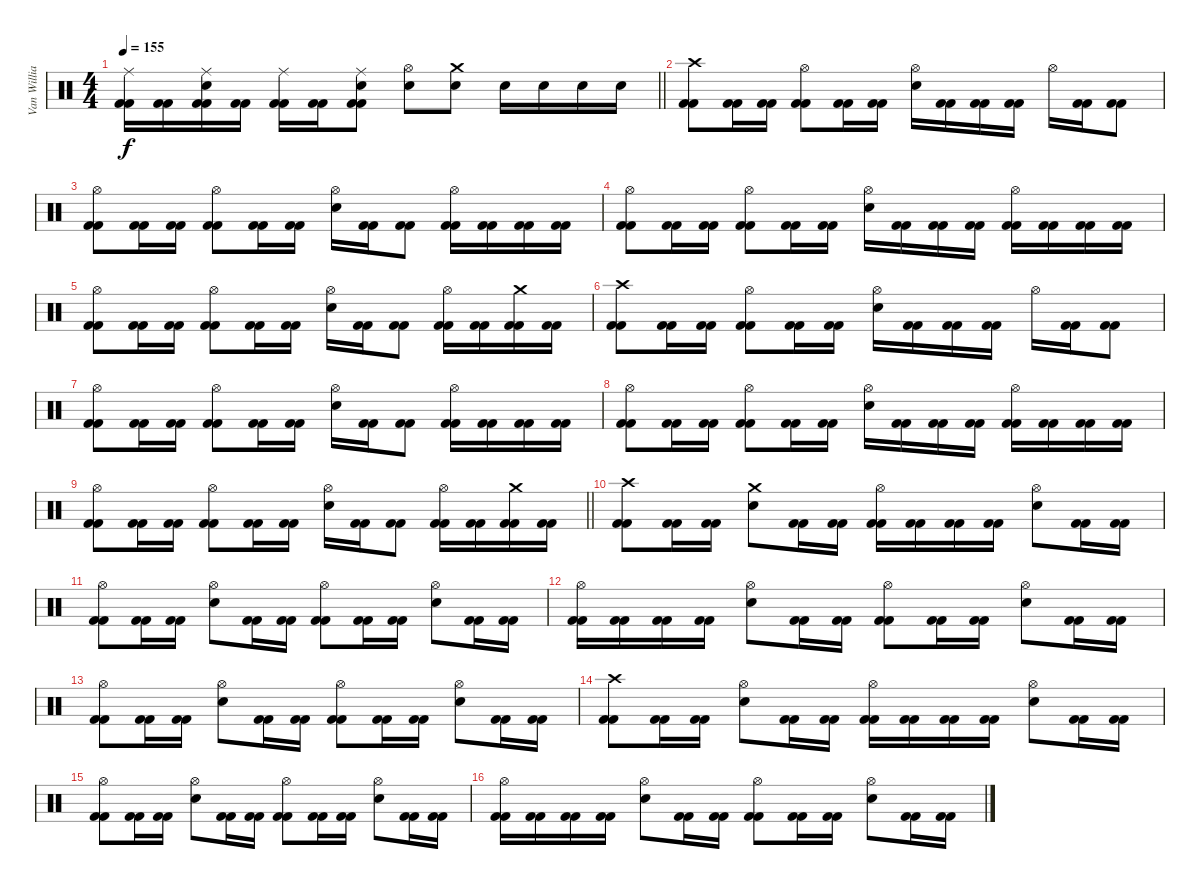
\track ("Van Williams" "Van Willia") {instrument percussion}
\staff {score}
\articulation defaults
\ts (4 4)
\tempo 155
\clef neutral
\barLineRight lightlight
\ks c
("Ride (middle)" "Kick (hit) 2" "Kick (hit) 2").16{dy f} ("Kick (hit) 2" "Kick (hit) 2").16 ("Ride (middle)" "Electric Snare (hit)" "Kick (hit) 2" "Kick (hit) 2").16 ("Kick (hit) 2" "Kick (hit) 2").16 ("Ride (middle)" "Kick (hit) 2" "Kick (hit) 2").16 ("Kick (hit) 2" "Kick (hit) 2").16 ("Ride (middle)" "Electric Snare (hit)" "Kick (hit) 2" "Kick (hit) 2").8 ("Hi-Hat (open)" "Electric Snare (hit)").8 ("Crash medium (hit)" "Electric Snare (hit)").8 "Electric Snare (hit)".16 "Electric Snare (hit)".16 "Electric Snare (hit)".16 "Electric Snare (hit)".16 |
("Crash high (hit)" "Kick (hit) 2" "Kick (hit) 2").8 ("Kick (hit) 2" "Kick (hit) 2").16 ("Kick (hit) 2" "Kick (hit) 2").16 ("Hi-Hat (open)" "Kick (hit) 2" "Kick (hit) 2").8 ("Kick (hit) 2" "Kick (hit) 2").16 ("Kick (hit) 2" "Kick (hit) 2").16 ("Hi-Hat (open)" "Electric Snare (hit)").16 ("Kick (hit) 2" "Kick (hit) 2").16 ("Kick (hit) 2" "Kick (hit) 2").16 ("Kick (hit) 2" "Kick (hit) 2").16 "Hi-Hat (open)".16 ("Kick (hit) 2" "Kick (hit) 2").16 ("Kick (hit) 2" "Kick (hit) 2").8 |
("Hi-Hat (open)" "Kick (hit) 2" "Kick (hit) 2").8 ("Kick (hit) 2" "Kick (hit) 2").16 ("Kick (hit) 2" "Kick (hit) 2").16 ("Hi-Hat (open)" "Kick (hit) 2" "Kick (hit) 2").8 ("Kick (hit) 2" "Kick (hit) 2").16 ("Kick (hit) 2" "Kick (hit) 2").16 ("Hi-Hat (open)" "Electric Snare (hit)").16 ("Kick (hit) 2" "Kick (hit) 2").16 ("Kick (hit) 2" "Kick (hit) 2").8 ("Hi-Hat (open)" "Kick (hit) 2" "Kick (hit) 2").16 ("Kick (hit) 2" "Kick (hit) 2").16 ("Kick (hit) 2" "Kick (hit) 2").16 ("Kick (hit) 2" "Kick (hit) 2").16 |
("Hi-Hat (open)" "Kick (hit) 2" "Kick (hit) 2").8 ("Kick (hit) 2" "Kick (hit) 2").16 ("Kick (hit) 2" "Kick (hit) 2").16 ("Hi-Hat (open)" "Kick (hit) 2" "Kick (hit) 2").8 ("Kick (hit) 2" "Kick (hit) 2").16 ("Kick (hit) 2" "Kick (hit) 2").16 ("Hi-Hat (open)" "Electric Snare (hit)").16 ("Kick (hit) 2" "Kick (hit) 2").16 ("Kick (hit) 2" "Kick (hit) 2").16 ("Kick (hit) 2" "Kick (hit) 2").16 ("Hi-Hat (open)" "Kick (hit) 2" "Kick (hit) 2").16 ("Kick (hit) 2" "Kick (hit) 2").16 ("Kick (hit) 2" "Kick (hit) 2").16 ("Kick (hit) 2" "Kick (hit) 2").16 |
("Hi-Hat (open)" "Kick (hit) 2" "Kick (hit) 2").8 ("Kick (hit) 2" "Kick (hit) 2").16 ("Kick (hit) 2" "Kick (hit) 2").16 ("Hi-Hat (open)" "Kick (hit) 2" "Kick (hit) 2").8 ("Kick (hit) 2" "Kick (hit) 2").16 ("Kick (hit) 2" "Kick (hit) 2").16 ("Hi-Hat (open)" "Electric Snare (hit)").16 ("Kick (hit) 2" "Kick (hit) 2").16 ("Kick (hit) 2" "Kick (hit) 2").8 ("Hi-Hat (open)" "Kick (hit) 2" "Kick (hit) 2").16 ("Kick (hit) 2" "Kick (hit) 2").16 ("Crash medium (hit)" "Kick (hit) 2" "Kick (hit) 2").16 ("Kick (hit) 2" "Kick (hit) 2").16 |
("Crash high (hit)" "Kick (hit) 2" "Kick (hit) 2").8 ("Kick (hit) 2" "Kick (hit) 2").16 ("Kick (hit) 2" "Kick (hit) 2").16 ("Hi-Hat (open)" "Kick (hit) 2" "Kick (hit) 2").8 ("Kick (hit) 2" "Kick (hit) 2").16 ("Kick (hit) 2" "Kick (hit) 2").16 ("Hi-Hat (open)" "Electric Snare (hit)").16 ("Kick (hit) 2" "Kick (hit) 2").16 ("Kick (hit) 2" "Kick (hit) 2").16 ("Kick (hit) 2" "Kick (hit) 2").16 "Hi-Hat (open)".16 ("Kick (hit) 2" "Kick (hit) 2").16 ("Kick (hit) 2" "Kick (hit) 2").8 |
("Hi-Hat (open)" "Kick (hit) 2" "Kick (hit) 2").8 ("Kick (hit) 2" "Kick (hit) 2").16 ("Kick (hit) 2" "Kick (hit) 2").16 ("Hi-Hat (open)" "Kick (hit) 2" "Kick (hit) 2").8 ("Kick (hit) 2" "Kick (hit) 2").16 ("Kick (hit) 2" "Kick (hit) 2").16 ("Hi-Hat (open)" "Electric Snare (hit)").16 ("Kick (hit) 2" "Kick (hit) 2").16 ("Kick (hit) 2" "Kick (hit) 2").8 ("Hi-Hat (open)" "Kick (hit) 2" "Kick (hit) 2").16 ("Kick (hit) 2" "Kick (hit) 2").16 ("Kick (hit) 2" "Kick (hit) 2").16 ("Kick (hit) 2" "Kick (hit) 2").16 |
("Hi-Hat (open)" "Kick (hit) 2" "Kick (hit) 2").8 ("Kick (hit) 2" "Kick (hit) 2").16 ("Kick (hit) 2" "Kick (hit) 2").16 ("Hi-Hat (open)" "Kick (hit) 2" "Kick (hit) 2").8 ("Kick (hit) 2" "Kick (hit) 2").16 ("Kick (hit) 2" "Kick (hit) 2").16 ("Hi-Hat (open)" "Electric Snare (hit)").16 ("Kick (hit) 2" "Kick (hit) 2").16 ("Kick (hit) 2" "Kick (hit) 2").16 ("Kick (hit) 2" "Kick (hit) 2").16 ("Hi-Hat (open)" "Kick (hit) 2" "Kick (hit) 2").16 ("Kick (hit) 2" "Kick (hit) 2").16 ("Kick (hit) 2" "Kick (hit) 2").16 ("Kick (hit) 2" "Kick (hit) 2").16 |
\barLineRight lightlight
("Hi-Hat (open)" "Kick (hit) 2" "Kick (hit) 2").8 ("Kick (hit) 2" "Kick (hit) 2").16 ("Kick (hit) 2" "Kick (hit) 2").16 ("Hi-Hat (open)" "Kick (hit) 2" "Kick (hit) 2").8 ("Kick (hit) 2" "Kick (hit) 2").16 ("Kick (hit) 2" "Kick (hit) 2").16 ("Hi-Hat (open)" "Electric Snare (hit)").16 ("Kick (hit) 2" "Kick (hit) 2").16 ("Kick (hit) 2" "Kick (hit) 2").8 ("Hi-Hat (open)" "Kick (hit) 2" "Kick (hit) 2").16 ("Kick (hit) 2" "Kick (hit) 2").16 ("Crash medium (hit)" "Kick (hit) 2" "Kick (hit) 2").16 ("Kick (hit) 2" "Kick (hit) 2").16 |
("Crash high (hit)" "Kick (hit) 2" "Kick (hit) 2").8 ("Kick (hit) 2" "Kick (hit) 2").16 ("Kick (hit) 2" "Kick (hit) 2").16 ("Crash medium (hit)" "Electric Snare (hit)").8 ("Kick (hit) 2" "Kick (hit) 2").16 ("Kick (hit) 2" "Kick (hit) 2").16 ("Hi-Hat (open)" "Kick (hit) 2" "Kick (hit) 2").16 ("Kick (hit) 2" "Kick (hit) 2").16 ("Kick (hit) 2" "Kick (hit) 2").16 ("Kick (hit) 2" "Kick (hit) 2").16 ("Hi-Hat (open)" "Electric Snare (hit)").8 ("Kick (hit) 2" "Kick (hit) 2").16 ("Kick (hit) 2" "Kick (hit) 2").16 |
("Hi-Hat (open)" "Kick (hit) 2" "Kick (hit) 2").8 ("Kick (hit) 2" "Kick (hit) 2").16 ("Kick (hit) 2" "Kick (hit) 2").16 ("Hi-Hat (open)" "Electric Snare (hit)").8 ("Kick (hit) 2" "Kick (hit) 2").16 ("Kick (hit) 2" "Kick (hit) 2").16 ("Hi-Hat (open)" "Kick (hit) 2" "Kick (hit) 2").8 ("Kick (hit) 2" "Kick (hit) 2").16 ("Kick (hit) 2" "Kick (hit) 2").16 ("Hi-Hat (open)" "Electric Snare (hit)").8 ("Kick (hit) 2" "Kick (hit) 2").16 ("Kick (hit) 2" "Kick (hit) 2").16 |
("Hi-Hat (open)" "Kick (hit) 2" "Kick (hit) 2").16 ("Kick (hit) 2" "Kick (hit) 2").16 ("Kick (hit) 2" "Kick (hit) 2").16 ("Kick (hit) 2" "Kick (hit) 2").16 ("Hi-Hat (open)" "Electric Snare (hit)").8 ("Kick (hit) 2" "Kick (hit) 2").16 ("Kick (hit) 2" "Kick (hit) 2").16 ("Hi-Hat (open)" "Kick (hit) 2" "Kick (hit) 2").8 ("Kick (hit) 2" "Kick (hit) 2").16 ("Kick (hit) 2" "Kick (hit) 2").16 ("Hi-Hat (open)" "Electric Snare (hit)").8 ("Kick (hit) 2" "Kick (hit) 2").16 ("Kick (hit) 2" "Kick (hit) 2").16 |
("Hi-Hat (open)" "Kick (hit) 2" "Kick (hit) 2").8 ("Kick (hit) 2" "Kick (hit) 2").16 ("Kick (hit) 2" "Kick (hit) 2").16 ("Hi-Hat (open)" "Electric Snare (hit)").8 ("Kick (hit) 2" "Kick (hit) 2").16 ("Kick (hit) 2" "Kick (hit) 2").16 ("Hi-Hat (open)" "Kick (hit) 2" "Kick (hit) 2").8 ("Kick (hit) 2" "Kick (hit) 2").16 ("Kick (hit) 2" "Kick (hit) 2").16 ("Hi-Hat (open)" "Electric Snare (hit)").8 ("Kick (hit) 2" "Kick (hit) 2").16 ("Kick (hit) 2" "Kick (hit) 2").16 |
("Crash high (hit)" "Kick (hit) 2" "Kick (hit) 2").8 ("Kick (hit) 2" "Kick (hit) 2").16 ("Kick (hit) 2" "Kick (hit) 2").16 ("Hi-Hat (open)" "Electric Snare (hit)").8 ("Kick (hit) 2" "Kick (hit) 2").16 ("Kick (hit) 2" "Kick (hit) 2").16 ("Hi-Hat (open)" "Kick (hit) 2" "Kick (hit) 2").16 ("Kick (hit) 2" "Kick (hit) 2").16 ("Kick (hit) 2" "Kick (hit) 2").16 ("Kick (hit) 2" "Kick (hit) 2").16 ("Hi-Hat (open)" "Electric Snare (hit)").8 ("Kick (hit) 2" "Kick (hit) 2").16 ("Kick (hit) 2" "Kick (hit) 2").16 |
("Hi-Hat (open)" "Kick (hit) 2" "Kick (hit) 2").8 ("Kick (hit) 2" "Kick (hit) 2").16 ("Kick (hit) 2" "Kick (hit) 2").16 ("Hi-Hat (open)" "Electric Snare (hit)").8 ("Kick (hit) 2" "Kick (hit) 2").16 ("Kick (hit) 2" "Kick (hit) 2").16 ("Hi-Hat (open)" "Kick (hit) 2" "Kick (hit) 2").8 ("Kick (hit) 2" "Kick (hit) 2").16 ("Kick (hit) 2" "Kick (hit) 2").16 ("Hi-Hat (open)" "Electric Snare (hit)").8 ("Kick (hit) 2" "Kick (hit) 2").16 ("Kick (hit) 2" "Kick (hit) 2").16 |
("Hi-Hat (open)" "Kick (hit) 2" "Kick (hit) 2").16 ("Kick (hit) 2" "Kick (hit) 2").16 ("Kick (hit) 2" "Kick (hit) 2").16 ("Kick (hit) 2" "Kick (hit) 2").16 ("Hi-Hat (open)" "Electric Snare (hit)").8 ("Kick (hit) 2" "Kick (hit) 2").16 ("Kick (hit) 2" "Kick (hit) 2").16 ("Hi-Hat (open)" "Kick (hit) 2" "Kick (hit) 2").8 ("Kick (hit) 2" "Kick (hit) 2").16 ("Kick (hit) 2" "Kick (hit) 2").16 ("Hi-Hat (open)" "Electric Snare (hit)").8 ("Kick (hit) 2" "Kick (hit) 2").16 ("Kick (hit) 2" "Kick (hit) 2").16
